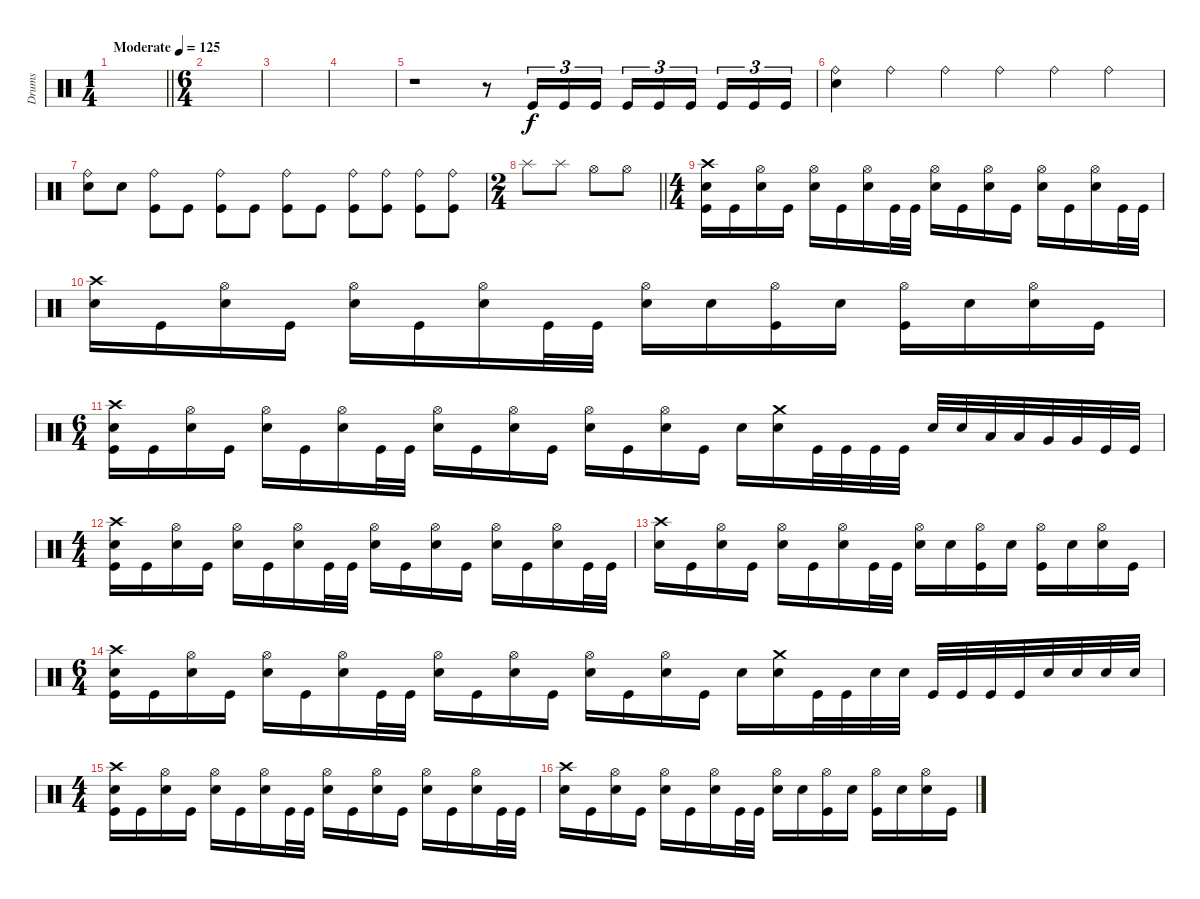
\track ("Drums" "Drums") {instrument percussion}
\staff
\articulation defaults
\ts (1 4)
\tempo (125 "Moderate")
\clef neutral
\barLineRight lightlight
\ks c
|
\ts (6 4)
|
|
|
r.1 r.8 "Kick (hit)".16{tu (3 2)} "Kick (hit)".16{tu (3 2)} "Kick (hit)".16{tu (3 2) beam splitsecondary} "Kick (hit)".16{tu (3 2)} "Kick (hit)".16{tu (3 2)} "Kick (hit)".16{tu (3 2) beam splitsecondary} "Kick (hit)".16{tu (3 2)} "Kick (hit)".16{tu (3 2)} "Kick (hit)".16{tu (3 2)} |
("Ride (bell)" "Electric Snare (hit)").4 "Ride (bell)".4 "Ride (bell)".4 "Ride (bell)".4 "Ride (bell)".4 "Ride (bell)".4 |
("Ride (bell)" "Electric Snare (hit)").8 "Electric Snare (hit)".8 ("Ride (bell)" "Kick (hit)").8 "Kick (hit)".8 ("Ride (bell)" "Kick (hit)").8 "Kick (hit)".8 ("Ride (bell)" "Kick (hit)").8 "Kick (hit)".8 ("Ride (bell)" "Kick (hit)").8 ("Ride (bell)" "Kick (hit)").8 ("Ride (bell)" "Kick (hit)").8 ("Ride (bell)" "Kick (hit)").8 |
\ts (2 4)
\barLineRight lightlight "Splash (hit)".8 "Splash (hit)".8 "Hi-Hat (open)".8 "Hi-Hat (open)".8
|
\ts (4 4)
\section ("" "")
("Crash high (hit)" "Electric Snare (hit)" "Kick (hit)").16 "Kick (hit)".16 ("Hi-Hat (open)" "Electric Snare (hit)").16 "Kick (hit)".16 ("Hi-Hat (open)" "Electric Snare (hit)").16 "Kick (hit)".16 ("Hi-Hat (open)" "Electric Snare (hit)").16 "Kick (hit)".32 "Kick (hit)".32 ("Hi-Hat (open)" "Electric Snare (hit)").16 "Kick (hit)".16 ("Hi-Hat (open)" "Electric Snare (hit)").16 "Kick (hit)".16 ("Hi-Hat (open)" "Electric Snare (hit)").16 "Kick (hit)".16 ("Hi-Hat (open)" "Electric Snare (hit)").16 "Kick (hit)".32 "Kick (hit)".32 |
("Crash high (hit)" "Electric Snare (hit)").16 "Kick (hit)".16 ("Hi-Hat (open)" "Electric Snare (hit)").16 "Kick (hit)".16 ("Hi-Hat (open)" "Electric Snare (hit)").16 "Kick (hit)".16 ("Hi-Hat (open)" "Electric Snare (hit)").16 "Kick (hit)".32 "Kick (hit)".32 ("Hi-Hat (open)" "Electric Snare (hit)").16 "Electric Snare (hit)".16 ("Hi-Hat (open)" "Kick (hit)").16 "Electric Snare (hit)".16 ("Hi-Hat (open)" "Kick (hit)").16 "Electric Snare (hit)".16 ("Hi-Hat (open)" "Electric Snare (hit)").16 "Kick (hit)".16 |
\ts (6 4)
("Crash high (hit)" "Electric Snare (hit)" "Kick (hit)").16 "Kick (hit)".16 ("Hi-Hat (open)" "Electric Snare (hit)").16 "Kick (hit)".16 ("Hi-Hat (open)" "Electric Snare (hit)").16 "Kick (hit)".16 ("Hi-Hat (open)" "Electric Snare (hit)").16 "Kick (hit)".32 "Kick (hit)".32 ("Hi-Hat (open)" "Electric Snare (hit)").16 "Kick (hit)".16 ("Hi-Hat (open)" "Electric Snare (hit)").16 "Kick (hit)".16 ("Hi-Hat (open)" "Electric Snare (hit)").16 "Kick (hit)".16 ("Hi-Hat (open)" "Electric Snare (hit)").16 "Kick (hit)".16 "Electric Snare (hit)".16 ("Crash medium (hit)" "Electric Snare (hit)").16 "Kick (hit)".32 "Kick (hit)".32 "Kick (hit)".32 "Kick (hit)".32 "Electric Snare (hit)".32 "Electric Snare (hit)".32 "Low Tom (hit)".32 "Low Tom (hit)".32 "Very Low Tom (hit)".32 "Very Low Tom (hit)".32 "Kick (hit)".32 "Kick (hit)".32 |
\ts (4 4)
("Crash high (hit)" "Electric Snare (hit)" "Kick (hit)").16 "Kick (hit)".16 ("Hi-Hat (open)" "Electric Snare (hit)").16 "Kick (hit)".16 ("Hi-Hat (open)" "Electric Snare (hit)").16 "Kick (hit)".16 ("Hi-Hat (open)" "Electric Snare (hit)").16 "Kick (hit)".32 "Kick (hit)".32 ("Hi-Hat (open)" "Electric Snare (hit)").16 "Kick (hit)".16 ("Hi-Hat (open)" "Electric Snare (hit)").16 "Kick (hit)".16 ("Hi-Hat (open)" "Electric Snare (hit)").16 "Kick (hit)".16 ("Hi-Hat (open)" "Electric Snare (hit)").16 "Kick (hit)".32 "Kick (hit)".32 |
("Crash high (hit)" "Electric Snare (hit)").16 "Kick (hit)".16 ("Hi-Hat (open)" "Electric Snare (hit)").16 "Kick (hit)".16 ("Hi-Hat (open)" "Electric Snare (hit)").16 "Kick (hit)".16 ("Hi-Hat (open)" "Electric Snare (hit)").16 "Kick (hit)".32 "Kick (hit)".32 ("Hi-Hat (open)" "Electric Snare (hit)").16 "Electric Snare (hit)".16 ("Hi-Hat (open)" "Kick (hit)").16 "Electric Snare (hit)".16 ("Hi-Hat (open)" "Kick (hit)").16 "Electric Snare (hit)".16 ("Hi-Hat (open)" "Electric Snare (hit)").16 "Kick (hit)".16 |
\ts (6 4)
("Crash high (hit)" "Electric Snare (hit)" "Kick (hit)").16 "Kick (hit)".16 ("Hi-Hat (open)" "Electric Snare (hit)").16 "Kick (hit)".16 ("Hi-Hat (open)" "Electric Snare (hit)").16 "Kick (hit)".16 ("Hi-Hat (open)" "Electric Snare (hit)").16 "Kick (hit)".32 "Kick (hit)".32 ("Hi-Hat (open)" "Electric Snare (hit)").16 "Kick (hit)".16 ("Hi-Hat (open)" "Electric Snare (hit)").16 "Kick (hit)".16 ("Hi-Hat (open)" "Electric Snare (hit)").16 "Kick (hit)".16 ("Hi-Hat (open)" "Electric Snare (hit)").16 "Kick (hit)".16 "Electric Snare (hit)".16 ("Crash medium (hit)" "Electric Snare (hit)").16 "Kick (hit)".32 "Kick (hit)".32 "Electric Snare (hit)".32 "Electric Snare (hit)".32 "Kick (hit)".32 "Kick (hit)".32 "Kick (hit)".32 "Kick (hit)".32 "Electric Snare (hit)".32 "Electric Snare (hit)".32 "Electric Snare (hit)".32 "Electric Snare (hit)".32 |
\ts (4 4)
("Crash high (hit)" "Electric Snare (hit)" "Kick (hit)").16 "Kick (hit)".16 ("Hi-Hat (open)" "Electric Snare (hit)").16 "Kick (hit)".16 ("Hi-Hat (open)" "Electric Snare (hit)").16 "Kick (hit)".16 ("Hi-Hat (open)" "Electric Snare (hit)").16 "Kick (hit)".32 "Kick (hit)".32 ("Hi-Hat (open)" "Electric Snare (hit)").16 "Kick (hit)".16 ("Hi-Hat (open)" "Electric Snare (hit)").16 "Kick (hit)".16 ("Hi-Hat (open)" "Electric Snare (hit)").16 "Kick (hit)".16 ("Hi-Hat (open)" "Electric Snare (hit)").16 "Kick (hit)".32 "Kick (hit)".32 |
("Crash high (hit)" "Electric Snare (hit)").16 "Kick (hit)".16 ("Hi-Hat (open)" "Electric Snare (hit)").16 "Kick (hit)".16 ("Hi-Hat (open)" "Electric Snare (hit)").16 "Kick (hit)".16 ("Hi-Hat (open)" "Electric Snare (hit)").16 "Kick (hit)".32 "Kick (hit)".32 ("Hi-Hat (open)" "Electric Snare (hit)").16 "Electric Snare (hit)".16 ("Hi-Hat (open)" "Kick (hit)").16 "Electric Snare (hit)".16 ("Hi-Hat (open)" "Kick (hit)").16 "Electric Snare (hit)".16 ("Hi-Hat (open)" "Electric Snare (hit)").16 "Kick (hit)".16
